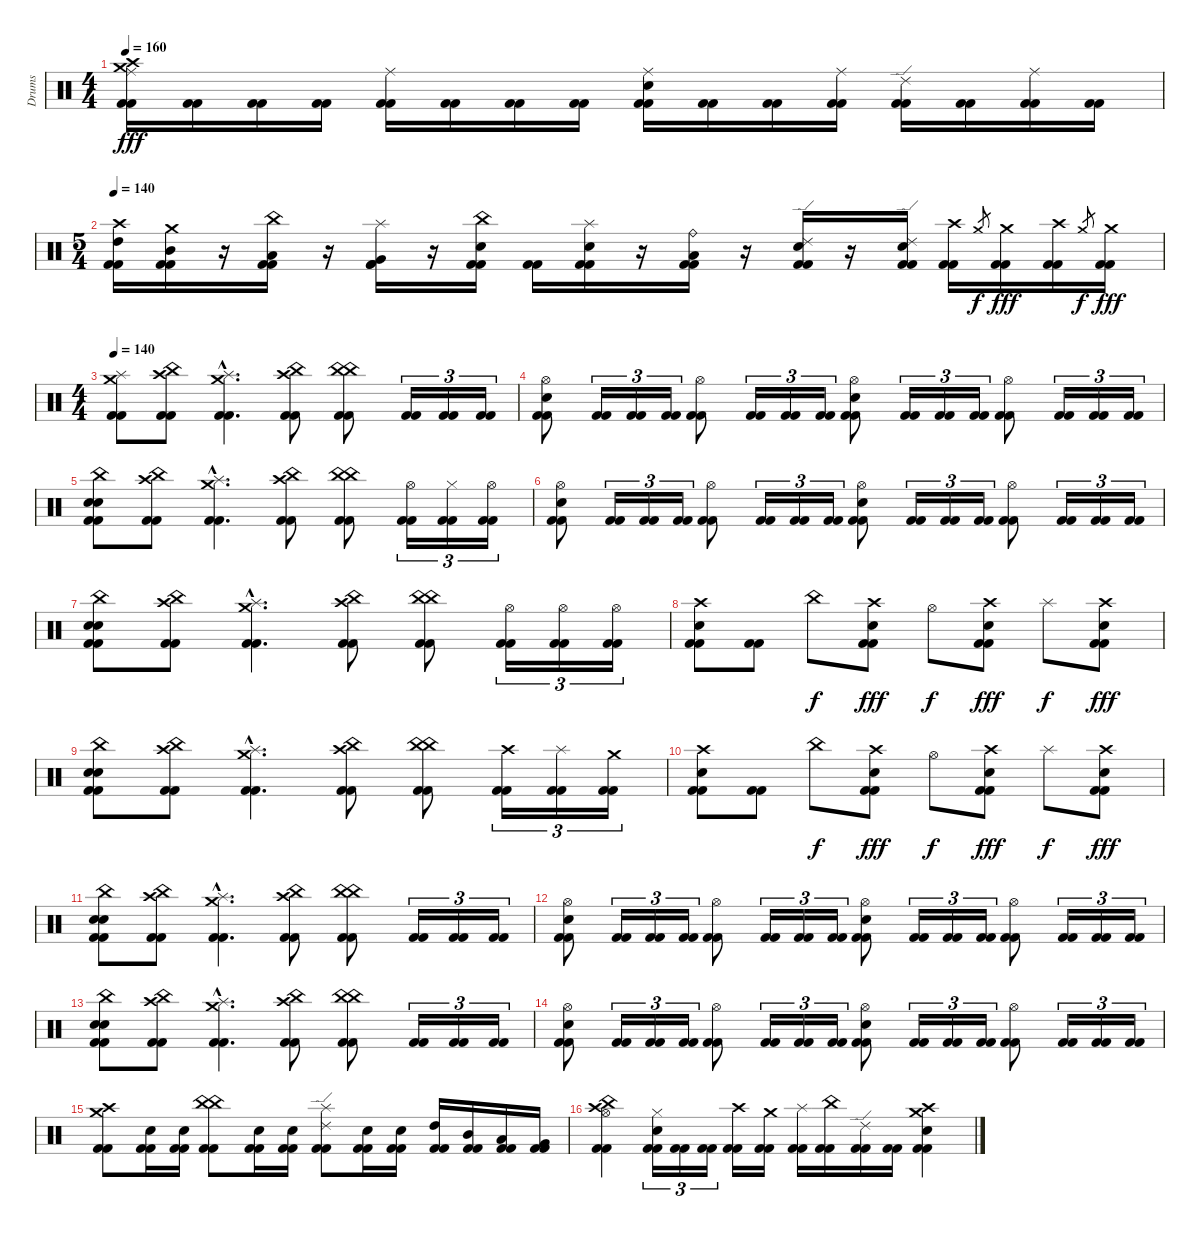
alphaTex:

\track ("Drums" "Drums") {instrument percussion}
\staff {score}
\articulation defaults
\ts (4 4)
\tempo 160
\clef neutral
\ks c
("Crash high (hit)" "Crash medium (hit)" "Ride (middle)" "Kick (hit) 2" "Kick (hit) 2").16{dy fff} ("Kick (hit) 2" "Kick (hit) 2").16 ("Kick (hit) 2" "Kick (hit) 2").16 ("Kick (hit) 2" "Kick (hit) 2").16 ("Ride (middle)" "Kick (hit) 2" "Kick (hit) 2").16 ("Kick (hit) 2" "Kick (hit) 2").16 ("Kick (hit) 2" "Kick (hit) 2").16 ("Kick (hit) 2" "Kick (hit) 2").16 ("Electric Snare (hit)" "Ride (middle)" "Kick (hit) 2" "Kick (hit) 2").16 ("Kick (hit) 2" "Kick (hit) 2").16 ("Kick (hit) 2" "Kick (hit) 2").16 ("Ride (middle)" "Kick (hit) 2" "Kick (hit) 2").16 ("Ride (edge) 2" "Kick (hit) 2" "Kick (hit) 2").16 ("Kick (hit) 2" "Kick (hit) 2").16 ("Ride (middle)" "Kick (hit) 2" "Kick (hit) 2").16 ("Kick (hit) 2" "Kick (hit) 2").16 |
\ts (5 4)
\tempo 140
("Crash high (hit)" "High Tom (hit)" "Kick (hit) 2" "Kick (hit) 2").16 ("Crash medium (hit)" "Mid Tom (hit)" "Kick (hit) 2" "Kick (hit) 2").16 r.16 ("China (hit)" "Low Tom (hit)" "Kick (hit) 2" "Kick (hit) 2").16 r.16 ("Splash (hit)" "Very Low Tom (hit)" "Kick (hit) 2" "Kick (hit) 2").16 r.16 ("China (hit)" "Electric Snare (hit)" "Kick (hit) 2" "Kick (hit) 2").16 ("Kick (hit) 2" "Kick (hit) 2").16 ("Splash (hit)" "Electric Snare (hit)" "Kick (hit) 2" "Kick (hit) 2").16 r.16 ("Ride (bell)" "Low Floor Tom (hit)" "Kick (hit) 2" "Kick (hit) 2").16 r.16 ("Ride (edge) 2" "Electric Snare (hit)" "Kick (hit) 2" "Kick (hit) 2").16 r.16 ("Ride (edge) 2" "Electric Snare (hit)" "Kick (hit) 2" "Kick (hit) 2").16 ("Crash high (hit)" "Kick (hit) 2" "Kick (hit) 2").16 "Crash medium (hit)".8{gr dy f} ("Crash medium (hit)" "Kick (hit) 2" "Kick (hit) 2").16{dy fff} ("Crash high (hit)" "Kick (hit) 2" "Kick (hit) 2").16 "Crash medium (hit)".8{gr dy f} ("Crash medium (hit)" "Kick (hit) 2" "Kick (hit) 2").16{dy fff} |
\ts (4 4)
\tempo 140
("Splash (hit)" "Crash medium (hit)" "Kick (hit) 2" "Kick (hit) 2").8 ("Crash high (hit)" "China (hit)" "Kick (hit) 2" "Kick (hit) 2").8 ("Crash medium (hit)"{hac} "Splash (hit)"{hac} "Kick (hit) 2"{hac} "Kick (hit) 2"{hac}).4{d} ("China (hit)" "Crash high (hit)" "Kick (hit) 2" "Kick (hit) 2").8 ("China (hit)" "China (hit)" "Kick (hit) 2" "Kick (hit) 2").8 ("Kick (hit) 2" "Kick (hit) 2").16{tu (3 2)} ("Kick (hit) 2" "Kick (hit) 2").16{tu (3 2)} ("Kick (hit) 2" "Kick (hit) 2").16{tu (3 2)} |
("Electric Snare (hit)" "Hi-Hat (open)" "Kick (hit) 2" "Kick (hit) 2").8 ("Kick (hit) 2" "Kick (hit) 2").16{tu (3 2)} ("Kick (hit) 2" "Kick (hit) 2").16{tu (3 2)} ("Kick (hit) 2" "Kick (hit) 2").16{tu (3 2)} ("Hi-Hat (open)" "Kick (hit) 2" "Kick (hit) 2").8 ("Kick (hit) 2" "Kick (hit) 2").16{tu (3 2)} ("Kick (hit) 2" "Kick (hit) 2").16{tu (3 2)} ("Kick (hit) 2" "Kick (hit) 2").16{tu (3 2)} ("Electric Snare (hit)" "Hi-Hat (open)" "Kick (hit) 2" "Kick (hit) 2").8 ("Kick (hit) 2" "Kick (hit) 2").16{tu (3 2)} ("Kick (hit) 2" "Kick (hit) 2").16{tu (3 2)} ("Kick (hit) 2" "Kick (hit) 2").16{tu (3 2)} ("Hi-Hat (open)" "Kick (hit) 2" "Kick (hit) 2").8 ("Kick (hit) 2" "Kick (hit) 2").16{tu (3 2)} ("Kick (hit) 2" "Kick (hit) 2").16{tu (3 2)} ("Kick (hit) 2" "Kick (hit) 2").16{tu (3 2)} |
("China (hit)" "Electric Snare (hit)" "Electric Snare (hit)" "Kick (hit) 2" "Kick (hit) 2").8 ("Crash high (hit)" "China (hit)" "Kick (hit) 2" "Kick (hit) 2").8 ("Crash medium (hit)"{hac} "Splash (hit)"{hac} "Kick (hit) 2"{hac} "Kick (hit) 2"{hac}).4{d} ("China (hit)" "Crash high (hit)" "Kick (hit) 2" "Kick (hit) 2").8 ("China (hit)" "China (hit)" "Kick (hit) 2" "Kick (hit) 2").8 ("Hi-Hat (open)" "Kick (hit) 2" "Kick (hit) 2").16{tu (3 2)} ("Hi-Hat (closed)" "Kick (hit) 2" "Kick (hit) 2").16{tu (3 2)} ("Hi-Hat (open)" "Kick (hit) 2" "Kick (hit) 2").16{tu (3 2)} |
("Electric Snare (hit)" "Hi-Hat (open)" "Kick (hit) 2" "Kick (hit) 2").8 ("Kick (hit) 2" "Kick (hit) 2").16{tu (3 2)} ("Kick (hit) 2" "Kick (hit) 2").16{tu (3 2)} ("Kick (hit) 2" "Kick (hit) 2").16{tu (3 2)} ("Hi-Hat (open)" "Kick (hit) 2" "Kick (hit) 2").8 ("Kick (hit) 2" "Kick (hit) 2").16{tu (3 2)} ("Kick (hit) 2" "Kick (hit) 2").16{tu (3 2)} ("Kick (hit) 2" "Kick (hit) 2").16{tu (3 2)} ("Electric Snare (hit)" "Hi-Hat (open)" "Kick (hit) 2" "Kick (hit) 2").8 ("Kick (hit) 2" "Kick (hit) 2").16{tu (3 2)} ("Kick (hit) 2" "Kick (hit) 2").16{tu (3 2)} ("Kick (hit) 2" "Kick (hit) 2").16{tu (3 2)} ("Hi-Hat (open)" "Kick (hit) 2" "Kick (hit) 2").8 ("Kick (hit) 2" "Kick (hit) 2").16{tu (3 2)} ("Kick (hit) 2" "Kick (hit) 2").16{tu (3 2)} ("Kick (hit) 2" "Kick (hit) 2").16{tu (3 2)} |
("China (hit)" "Electric Snare (hit)" "Electric Snare (hit)" "Kick (hit) 2" "Kick (hit) 2").8 ("Crash high (hit)" "China (hit)" "Kick (hit) 2" "Kick (hit) 2").8 ("Crash medium (hit)"{hac} "Splash (hit)"{hac} "Kick (hit) 2"{hac} "Kick (hit) 2"{hac}).4{d} ("China (hit)" "Crash high (hit)" "Kick (hit) 2" "Kick (hit) 2").8 ("China (hit)" "China (hit)" "Kick (hit) 2" "Kick (hit) 2").8 ("Hi-Hat (open)" "Kick (hit) 2" "Kick (hit) 2").16{tu (3 2)} ("Hi-Hat (open)" "Kick (hit) 2" "Kick (hit) 2").16{tu (3 2)} ("Hi-Hat (open)" "Kick (hit) 2" "Kick (hit) 2").16{tu (3 2)} |
("Electric Snare (hit)" "Crash high (hit)" "Kick (hit) 2" "Kick (hit) 2").8 ("Kick (hit) 2" "Kick (hit) 2").8 "China (hit)".8{dy f} ("Electric Snare (hit)" "Crash high (hit)" "Kick (hit) 2" "Kick (hit) 2").8{dy fff} "Hi-Hat (open)".8{dy f} ("Electric Snare (hit)" "Crash high (hit)" "Kick (hit) 2" "Kick (hit) 2").8{dy fff} "Splash (hit)".8{dy f} ("Electric Snare (hit)" "Crash high (hit)" "Kick (hit) 2" "Kick (hit) 2").8{dy fff} |
("China (hit)" "Electric Snare (hit)" "Electric Snare (hit)" "Kick (hit) 2" "Kick (hit) 2").8 ("Crash high (hit)" "China (hit)" "Kick (hit) 2" "Kick (hit) 2").8 ("Crash medium (hit)"{hac} "Splash (hit)"{hac} "Kick (hit) 2"{hac} "Kick (hit) 2"{hac}).4{d} ("China (hit)" "Crash high (hit)" "Kick (hit) 2" "Kick (hit) 2").8 ("China (hit)" "China (hit)" "Kick (hit) 2" "Kick (hit) 2").8 ("Crash high (hit)" "Kick (hit) 2" "Kick (hit) 2").16{tu (3 2)} ("Splash (hit)" "Kick (hit) 2" "Kick (hit) 2").16{tu (3 2)} ("Crash medium (hit)" "Kick (hit) 2" "Kick (hit) 2").16{tu (3 2)} |
("Electric Snare (hit)" "Crash high (hit)" "Kick (hit) 2" "Kick (hit) 2").8 ("Kick (hit) 2" "Kick (hit) 2").8 "China (hit)".8{dy f} ("Electric Snare (hit)" "Crash high (hit)" "Kick (hit) 2" "Kick (hit) 2").8{dy fff} "Hi-Hat (open)".8{dy f} ("Electric Snare (hit)" "Crash high (hit)" "Kick (hit) 2" "Kick (hit) 2").8{dy fff} "Splash (hit)".8{dy f} ("Electric Snare (hit)" "Crash high (hit)" "Kick (hit) 2" "Kick (hit) 2").8{dy fff} |
("China (hit)" "Electric Snare (hit)" "Electric Snare (hit)" "Kick (hit) 2" "Kick (hit) 2").8 ("Crash high (hit)" "China (hit)" "Kick (hit) 2" "Kick (hit) 2").8 ("Crash medium (hit)"{hac} "Splash (hit)"{hac} "Kick (hit) 2"{hac} "Kick (hit) 2"{hac}).4{d} ("China (hit)" "Crash high (hit)" "Kick (hit) 2" "Kick (hit) 2").8 ("China (hit)" "China (hit)" "Kick (hit) 2" "Kick (hit) 2").8 ("Kick (hit) 2" "Kick (hit) 2").16{tu (3 2)} ("Kick (hit) 2" "Kick (hit) 2").16{tu (3 2)} ("Kick (hit) 2" "Kick (hit) 2").16{tu (3 2)} |
("Electric Snare (hit)" "Hi-Hat (open)" "Kick (hit) 2" "Kick (hit) 2").8 ("Kick (hit) 2" "Kick (hit) 2").16{tu (3 2)} ("Kick (hit) 2" "Kick (hit) 2").16{tu (3 2)} ("Kick (hit) 2" "Kick (hit) 2").16{tu (3 2)} ("Hi-Hat (open)" "Kick (hit) 2" "Kick (hit) 2").8 ("Kick (hit) 2" "Kick (hit) 2").16{tu (3 2)} ("Kick (hit) 2" "Kick (hit) 2").16{tu (3 2)} ("Kick (hit) 2" "Kick (hit) 2").16{tu (3 2)} ("Electric Snare (hit)" "Hi-Hat (open)" "Kick (hit) 2" "Kick (hit) 2").8 ("Kick (hit) 2" "Kick (hit) 2").16{tu (3 2)} ("Kick (hit) 2" "Kick (hit) 2").16{tu (3 2)} ("Kick (hit) 2" "Kick (hit) 2").16{tu (3 2)} ("Hi-Hat (open)" "Kick (hit) 2" "Kick (hit) 2").8 ("Kick (hit) 2" "Kick (hit) 2").16{tu (3 2)} ("Kick (hit) 2" "Kick (hit) 2").16{tu (3 2)} ("Kick (hit) 2" "Kick (hit) 2").16{tu (3 2)} |
("China (hit)" "Electric Snare (hit)" "Electric Snare (hit)" "Kick (hit) 2" "Kick (hit) 2").8 ("Crash high (hit)" "China (hit)" "Kick (hit) 2" "Kick (hit) 2").8 ("Crash medium (hit)"{hac} "Splash (hit)"{hac} "Kick (hit) 2"{hac} "Kick (hit) 2"{hac}).4{d} ("China (hit)" "Crash high (hit)" "Kick (hit) 2" "Kick (hit) 2").8 ("China (hit)" "China (hit)" "Kick (hit) 2" "Kick (hit) 2").8 ("Kick (hit) 2" "Kick (hit) 2").16{tu (3 2)} ("Kick (hit) 2" "Kick (hit) 2").16{tu (3 2)} ("Kick (hit) 2" "Kick (hit) 2").16{tu (3 2)} |
("Electric Snare (hit)" "Hi-Hat (open)" "Kick (hit) 2" "Kick (hit) 2").8 ("Kick (hit) 2" "Kick (hit) 2").16{tu (3 2)} ("Kick (hit) 2" "Kick (hit) 2").16{tu (3 2)} ("Kick (hit) 2" "Kick (hit) 2").16{tu (3 2)} ("Hi-Hat (open)" "Kick (hit) 2" "Kick (hit) 2").8 ("Kick (hit) 2" "Kick (hit) 2").16{tu (3 2)} ("Kick (hit) 2" "Kick (hit) 2").16{tu (3 2)} ("Kick (hit) 2" "Kick (hit) 2").16{tu (3 2)} ("Electric Snare (hit)" "Hi-Hat (open)" "Kick (hit) 2" "Kick (hit) 2").8 ("Kick (hit) 2" "Kick (hit) 2").16{tu (3 2)} ("Kick (hit) 2" "Kick (hit) 2").16{tu (3 2)} ("Kick (hit) 2" "Kick (hit) 2").16{tu (3 2)} ("Hi-Hat (open)" "Kick (hit) 2" "Kick (hit) 2").8 ("Kick (hit) 2" "Kick (hit) 2").16{tu (3 2)} ("Kick (hit) 2" "Kick (hit) 2").16{tu (3 2)} ("Kick (hit) 2" "Kick (hit) 2").16{tu (3 2)} |
("Crash medium (hit)" "Crash high (hit)" "Kick (hit) 2" "Kick (hit) 2").8 ("Electric Snare (hit)" "Kick (hit) 2" "Kick (hit) 2").16 ("Electric Snare (hit)" "Kick (hit) 2" "Kick (hit) 2").16 ("China (hit)" "China (hit)" "Kick (hit) 2" "Kick (hit) 2").8 ("Electric Snare (hit)" "Kick (hit) 2" "Kick (hit) 2").16 ("Electric Snare (hit)" "Kick (hit) 2" "Kick (hit) 2").16 ("Splash (hit)" "Ride (edge) 2" "Kick (hit) 2" "Kick (hit) 2").8 ("Electric Snare (hit)" "Kick (hit) 2" "Kick (hit) 2").16 ("Electric Snare (hit)" "Kick (hit) 2" "Kick (hit) 2").16 ("High Tom (hit)" "Kick (hit) 2" "Kick (hit) 2").16 ("Mid Tom (hit)" "Kick (hit) 2" "Kick (hit) 2").16 ("Low Tom (hit)" "Kick (hit) 2" "Kick (hit) 2").16 ("Very Low Tom (hit)" "Kick (hit) 2" "Kick (hit) 2").16 |
("China (hit)" "Crash high (hit)" "Hi-Hat (open)" "Kick (hit) 2" "Kick (hit) 2").4 ("Electric Snare (hit)" "Hi-Hat (closed)" "Kick (hit) 2" "Kick (hit) 2").16{tu (3 2)} ("Kick (hit) 2" "Kick (hit) 2").16{tu (3 2)} ("Kick (hit) 2" "Kick (hit) 2").16{tu (3 2)} ("Crash high (hit)" "Kick (hit) 2" "Kick (hit) 2").16 ("Crash medium (hit)" "Kick (hit) 2" "Kick (hit) 2").16 ("Splash (hit)" "Kick (hit) 2" "Kick (hit) 2").16 ("China (hit)" "Kick (hit) 2" "Kick (hit) 2").16 ("Ride (edge) 2" "Kick (hit) 2" "Kick (hit) 2").16 ("Kick (hit) 2" "Kick (hit) 2").16 ("Electric Snare (hit)" "Crash medium (hit)" "Crash high (hit)" "Kick (hit) 2" "Kick (hit) 2").4
